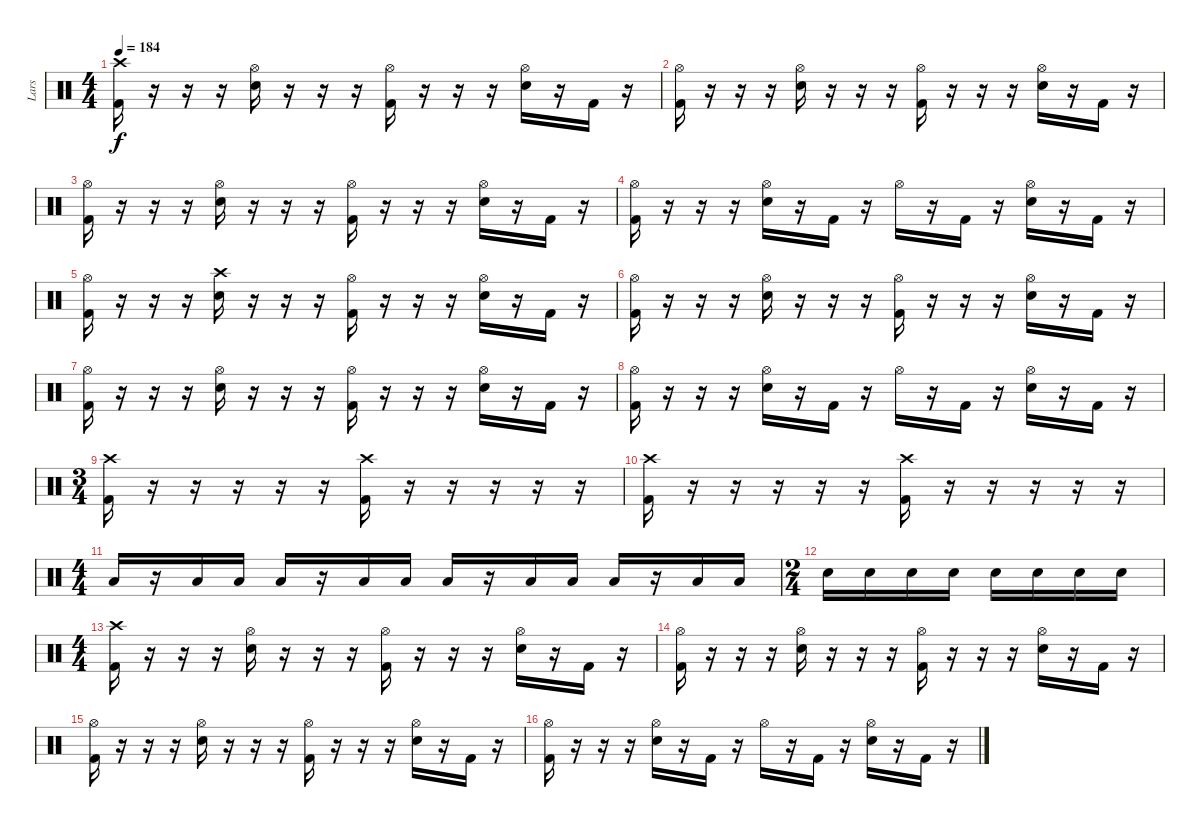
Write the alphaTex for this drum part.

\track ("Lars" "Lars") {instrument percussion}
\staff {score}
\articulation defaults
\ts (4 4)
\tempo 184
\clef neutral
\ks c
("Crash high (hit)" "Kick (hit) 2").16{dy f} r.16 r.16 r.16 ("Electric Snare (hit)" "Hi-Hat (open)").16 r.16 r.16 r.16 ("Hi-Hat (open)" "Kick (hit) 2").16 r.16 r.16 r.16 ("Electric Snare (hit)" "Hi-Hat (open)").16 r.16 "Kick (hit) 2".16 r.16 |
("Hi-Hat (open)" "Kick (hit) 2").16 r.16 r.16 r.16 ("Electric Snare (hit)" "Hi-Hat (open)").16 r.16 r.16 r.16 ("Hi-Hat (open)" "Kick (hit) 2").16 r.16 r.16 r.16 ("Electric Snare (hit)" "Hi-Hat (open)").16 r.16 "Kick (hit) 2".16 r.16 |
("Hi-Hat (open)" "Kick (hit) 2").16 r.16 r.16 r.16 ("Electric Snare (hit)" "Hi-Hat (open)").16 r.16 r.16 r.16 ("Hi-Hat (open)" "Kick (hit) 2").16 r.16 r.16 r.16 ("Electric Snare (hit)" "Hi-Hat (open)").16 r.16 "Kick (hit) 2".16 r.16 |
("Hi-Hat (open)" "Kick (hit) 2").16 r.16 r.16 r.16 ("Electric Snare (hit)" "Hi-Hat (open)").16 r.16 "Kick (hit) 2".16 r.16 "Hi-Hat (open)".16 r.16 "Kick (hit) 2".16 r.16 ("Electric Snare (hit)" "Hi-Hat (open)").16 r.16 "Kick (hit) 2".16 r.16 |
("Hi-Hat (open)" "Kick (hit) 2").16 r.16 r.16 r.16 ("Crash high (hit)" "Electric Snare (hit)").16 r.16 r.16 r.16 ("Hi-Hat (open)" "Kick (hit) 2").16 r.16 r.16 r.16 ("Electric Snare (hit)" "Hi-Hat (open)").16 r.16 "Kick (hit) 2".16 r.16 |
("Hi-Hat (open)" "Kick (hit) 2").16 r.16 r.16 r.16 ("Electric Snare (hit)" "Hi-Hat (open)").16 r.16 r.16 r.16 ("Hi-Hat (open)" "Kick (hit) 2").16 r.16 r.16 r.16 ("Electric Snare (hit)" "Hi-Hat (open)").16 r.16 "Kick (hit) 2".16 r.16 |
("Hi-Hat (open)" "Kick (hit) 2").16 r.16 r.16 r.16 ("Electric Snare (hit)" "Hi-Hat (open)").16 r.16 r.16 r.16 ("Hi-Hat (open)" "Kick (hit) 2").16 r.16 r.16 r.16 ("Electric Snare (hit)" "Hi-Hat (open)").16 r.16 "Kick (hit) 2".16 r.16 |
("Hi-Hat (open)" "Kick (hit) 2").16 r.16 r.16 r.16 ("Electric Snare (hit)" "Hi-Hat (open)").16 r.16 "Kick (hit) 2".16 r.16 "Hi-Hat (open)".16 r.16 "Kick (hit) 2".16 r.16 ("Electric Snare (hit)" "Hi-Hat (open)").16 r.16 "Kick (hit) 2".16 r.16 |
\ts (3 4)
("Crash high (hit)" "Kick (hit) 2").16 r.16 r.16 r.16 r.16 r.16 ("Crash high (hit)" "Kick (hit) 2").16 r.16 r.16 r.16 r.16 r.16 |
("Crash high (hit)" "Kick (hit) 2").16 r.16 r.16 r.16 r.16 r.16 ("Crash high (hit)" "Kick (hit) 2").16 r.16 r.16 r.16 r.16 r.16 |
\ts (4 4)
"Low Tom (hit)".16 r.16 "Low Tom (hit)".16 "Low Tom (hit)".16 "Low Tom (hit)".16 r.16 "Low Tom (hit)".16 "Low Tom (hit)".16 "Low Tom (hit)".16 r.16 "Low Tom (hit)".16 "Low Tom (hit)".16 "Low Tom (hit)".16 r.16 "Low Tom (hit)".16 "Low Tom (hit)".16 |
\ts (2 4)
"Electric Snare (hit)".16 "Electric Snare (hit)".16 "Electric Snare (hit)".16 "Electric Snare (hit)".16 "Electric Snare (hit)".16 "Electric Snare (hit)".16 "Electric Snare (hit)".16 "Electric Snare (hit)".16 |
\ts (4 4)
("Crash high (hit)" "Kick (hit) 2").16 r.16 r.16 r.16 ("Electric Snare (hit)" "Hi-Hat (open)").16 r.16 r.16 r.16 ("Hi-Hat (open)" "Kick (hit) 2").16 r.16 r.16 r.16 ("Electric Snare (hit)" "Hi-Hat (open)").16 r.16 "Kick (hit) 2".16 r.16 |
("Hi-Hat (open)" "Kick (hit) 2").16 r.16 r.16 r.16 ("Electric Snare (hit)" "Hi-Hat (open)").16 r.16 r.16 r.16 ("Hi-Hat (open)" "Kick (hit) 2").16 r.16 r.16 r.16 ("Electric Snare (hit)" "Hi-Hat (open)").16 r.16 "Kick (hit) 2".16 r.16 |
("Hi-Hat (open)" "Kick (hit) 2").16 r.16 r.16 r.16 ("Electric Snare (hit)" "Hi-Hat (open)").16 r.16 r.16 r.16 ("Hi-Hat (open)" "Kick (hit) 2").16 r.16 r.16 r.16 ("Electric Snare (hit)" "Hi-Hat (open)").16 r.16 "Kick (hit) 2".16 r.16 |
("Hi-Hat (open)" "Kick (hit) 2").16 r.16 r.16 r.16 ("Electric Snare (hit)" "Hi-Hat (open)").16 r.16 "Kick (hit) 2".16 r.16 "Hi-Hat (open)".16 r.16 "Kick (hit) 2".16 r.16 ("Electric Snare (hit)" "Hi-Hat (open)").16 r.16 "Kick (hit) 2".16 r.16
